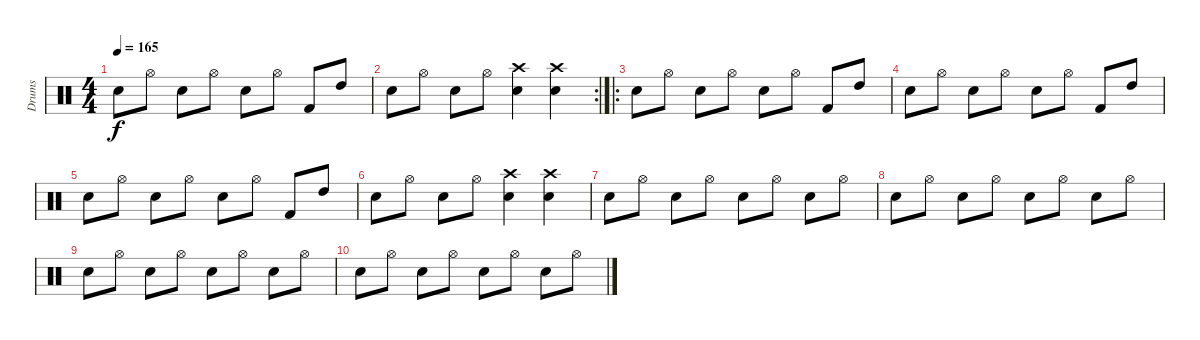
\track ("Drums" "Drums") {instrument percussion}
\staff {score}
\articulation defaults
\ts (4 4)
\tempo 165
\clef neutral
\ks c "Snare (hit) 2".8{dy f} "Hi-Hat (open)".8 "Snare (hit) 2".8 "Hi-Hat (open)".8 "Snare (hit) 2".8 "Hi-Hat (open)".8 "Kick (hit) 2".8 "High Tom (hit)".8
|
\rc 2 "Snare (hit) 2".8 "Hi-Hat (open)".8 "Snare (hit) 2".8 "Hi-Hat (open)".8
("Electric Snare (hit)" "Crash high (hit)").4 ("Electric Snare (hit)" "Crash high (hit)").4 |
\ro "Snare (hit) 2".8 "Hi-Hat (open)".8 "Snare (hit) 2".8 "Hi-Hat (open)".8 "Snare (hit) 2".8 "Hi-Hat (open)".8 "Kick (hit) 2".8 "High Tom (hit)".8
|
"Snare (hit) 2".8 "Hi-Hat (open)".8 "Snare (hit) 2".8 "Hi-Hat (open)".8 "Snare (hit) 2".8 "Hi-Hat (open)".8 "Kick (hit) 2".8 "High Tom (hit)".8 |
"Snare (hit) 2".8 "Hi-Hat (open)".8 "Snare (hit) 2".8 "Hi-Hat (open)".8 "Snare (hit) 2".8 "Hi-Hat (open)".8 "Kick (hit) 2".8 "High Tom (hit)".8 |
"Snare (hit) 2".8 "Hi-Hat (open)".8 "Snare (hit) 2".8 "Hi-Hat (open)".8 ("Electric Snare (hit)" "Crash high (hit)").4 ("Electric Snare (hit)" "Crash high (hit)").4 |
"Snare (hit) 2".8 "Hi-Hat (open)".8 "Snare (hit) 2".8 "Hi-Hat (open)".8 "Snare (hit) 2".8 "Hi-Hat (open)".8 "Snare (hit) 2".8 "Hi-Hat (open)".8 |
"Snare (hit) 2".8 "Hi-Hat (open)".8 "Snare (hit) 2".8 "Hi-Hat (open)".8 "Snare (hit) 2".8 "Hi-Hat (open)".8 "Snare (hit) 2".8 "Hi-Hat (open)".8 |
"Snare (hit) 2".8 "Hi-Hat (open)".8 "Snare (hit) 2".8 "Hi-Hat (open)".8 "Snare (hit) 2".8 "Hi-Hat (open)".8 "Snare (hit) 2".8 "Hi-Hat (open)".8 |
"Snare (hit) 2".8 "Hi-Hat (open)".8 "Snare (hit) 2".8 "Hi-Hat (open)".8 "Snare (hit) 2".8 "Hi-Hat (open)".8 "Snare (hit) 2".8 "Hi-Hat (open)".8
